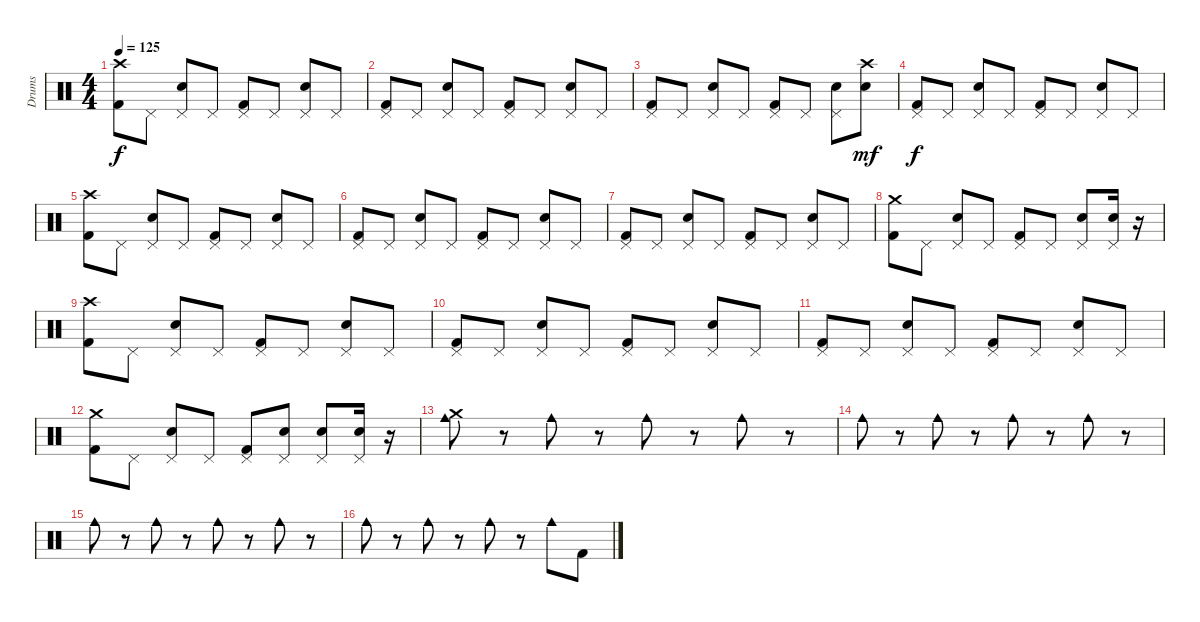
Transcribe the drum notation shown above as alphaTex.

\track ("Drums" "Drums") {instrument percussion}
\staff {score}
\articulation defaults
\ts (4 4)
\tempo 125
\clef neutral
\ks c
("Crash high (hit)" "Kick (hit) 2").8{dy f} "Pedal Hi-Hat (hit)".8 ("Pedal Hi-Hat (hit)" "Snare (hit) 2").8 "Pedal Hi-Hat (hit)".8 ("Pedal Hi-Hat (hit)" "Kick (hit) 2").8 "Pedal Hi-Hat (hit)".8 ("Pedal Hi-Hat (hit)" "Snare (hit) 2").8 "Pedal Hi-Hat (hit)".8 |
("Pedal Hi-Hat (hit)" "Kick (hit) 2").8 "Pedal Hi-Hat (hit)".8 ("Pedal Hi-Hat (hit)" "Snare (hit) 2").8 "Pedal Hi-Hat (hit)".8 ("Pedal Hi-Hat (hit)" "Kick (hit) 2").8 "Pedal Hi-Hat (hit)".8 ("Pedal Hi-Hat (hit)" "Snare (hit) 2").8 "Pedal Hi-Hat (hit)".8 |
("Pedal Hi-Hat (hit)" "Kick (hit) 2").8 "Pedal Hi-Hat (hit)".8 ("Pedal Hi-Hat (hit)" "Snare (hit) 2").8 "Pedal Hi-Hat (hit)".8 ("Pedal Hi-Hat (hit)" "Kick (hit) 2").8 "Pedal Hi-Hat (hit)".8 ("Pedal Hi-Hat (hit)" "Snare (hit) 2").8 ("Crash high (hit)" "Snare (hit) 2").8{dy mf} |
("Pedal Hi-Hat (hit)" "Kick (hit) 2").8{dy f} "Pedal Hi-Hat (hit)".8 ("Pedal Hi-Hat (hit)" "Snare (hit) 2").8 "Pedal Hi-Hat (hit)".8 ("Pedal Hi-Hat (hit)" "Kick (hit) 2").8 "Pedal Hi-Hat (hit)".8 ("Pedal Hi-Hat (hit)" "Snare (hit) 2").8 "Pedal Hi-Hat (hit)".8 |
("Crash high (hit)" "Kick (hit) 2").8 "Pedal Hi-Hat (hit)".8 ("Pedal Hi-Hat (hit)" "Snare (hit) 2").8 "Pedal Hi-Hat (hit)".8 ("Pedal Hi-Hat (hit)" "Kick (hit) 2").8 "Pedal Hi-Hat (hit)".8 ("Pedal Hi-Hat (hit)" "Snare (hit) 2").8 "Pedal Hi-Hat (hit)".8 |
("Pedal Hi-Hat (hit)" "Kick (hit) 2").8 "Pedal Hi-Hat (hit)".8 ("Pedal Hi-Hat (hit)" "Snare (hit) 2").8 "Pedal Hi-Hat (hit)".8 ("Pedal Hi-Hat (hit)" "Kick (hit) 2").8 "Pedal Hi-Hat (hit)".8 ("Pedal Hi-Hat (hit)" "Snare (hit) 2").8 "Pedal Hi-Hat (hit)".8 |
("Pedal Hi-Hat (hit)" "Kick (hit) 2").8 "Pedal Hi-Hat (hit)".8 ("Pedal Hi-Hat (hit)" "Snare (hit) 2").8 "Pedal Hi-Hat (hit)".8 ("Pedal Hi-Hat (hit)" "Kick (hit) 2").8 "Pedal Hi-Hat (hit)".8 ("Pedal Hi-Hat (hit)" "Snare (hit) 2").8 "Pedal Hi-Hat (hit)".8 |
("Crash medium (hit)" "Kick (hit) 2").8 "Pedal Hi-Hat (hit)".8 ("Pedal Hi-Hat (hit)" "Snare (hit) 2").8 "Pedal Hi-Hat (hit)".8 ("Pedal Hi-Hat (hit)" "Kick (hit) 2").8 "Pedal Hi-Hat (hit)".8 ("Pedal Hi-Hat (hit)" "Snare (hit) 2").8 ("Pedal Hi-Hat (hit)" "Snare (hit) 2").16 r.16 |
("Crash high (hit)" "Kick (hit) 2").8 "Pedal Hi-Hat (hit)".8 ("Pedal Hi-Hat (hit)" "Snare (hit) 2").8 "Pedal Hi-Hat (hit)".8 ("Pedal Hi-Hat (hit)" "Kick (hit) 2").8 "Pedal Hi-Hat (hit)".8 ("Pedal Hi-Hat (hit)" "Snare (hit) 2").8 "Pedal Hi-Hat (hit)".8 |
("Pedal Hi-Hat (hit)" "Kick (hit) 2").8 "Pedal Hi-Hat (hit)".8 ("Pedal Hi-Hat (hit)" "Snare (hit) 2").8 "Pedal Hi-Hat (hit)".8 ("Pedal Hi-Hat (hit)" "Kick (hit) 2").8 "Pedal Hi-Hat (hit)".8 ("Pedal Hi-Hat (hit)" "Snare (hit) 2").8 "Pedal Hi-Hat (hit)".8 |
("Pedal Hi-Hat (hit)" "Kick (hit) 2").8 "Pedal Hi-Hat (hit)".8 ("Pedal Hi-Hat (hit)" "Snare (hit) 2").8 "Pedal Hi-Hat (hit)".8 ("Pedal Hi-Hat (hit)" "Kick (hit) 2").8 "Pedal Hi-Hat (hit)".8 ("Pedal Hi-Hat (hit)" "Snare (hit) 2").8 "Pedal Hi-Hat (hit)".8 |
("Crash medium (hit)" "Kick (hit) 2").8 "Pedal Hi-Hat (hit)".8 ("Pedal Hi-Hat (hit)" "Snare (hit) 2").8 "Pedal Hi-Hat (hit)".8 ("Pedal Hi-Hat (hit)" "Kick (hit) 2").8 ("Pedal Hi-Hat (hit)" "Snare (hit) 2").8 ("Pedal Hi-Hat (hit)" "Snare (hit) 2").8 ("Pedal Hi-Hat (hit)" "Snare (hit) 2").16 r.16 |
("Crash medium (hit)" "Cowbell medium (hit)").8 r.8 "Cowbell medium (hit)".8 r.8 "Cowbell medium (hit)".8 r.8 "Cowbell medium (hit)".8 r.8 |
"Cowbell medium (hit)".8 r.8 "Cowbell medium (hit)".8 r.8 "Cowbell medium (hit)".8 r.8 "Cowbell medium (hit)".8 r.8 |
"Cowbell medium (hit)".8 r.8 "Cowbell medium (hit)".8 r.8 "Cowbell medium (hit)".8 r.8 "Cowbell medium (hit)".8 r.8 |
"Cowbell medium (hit)".8 r.8 "Cowbell medium (hit)".8 r.8 "Cowbell medium (hit)".8 r.8 "Cowbell medium (hit)".8 "Kick (hit) 2".8
